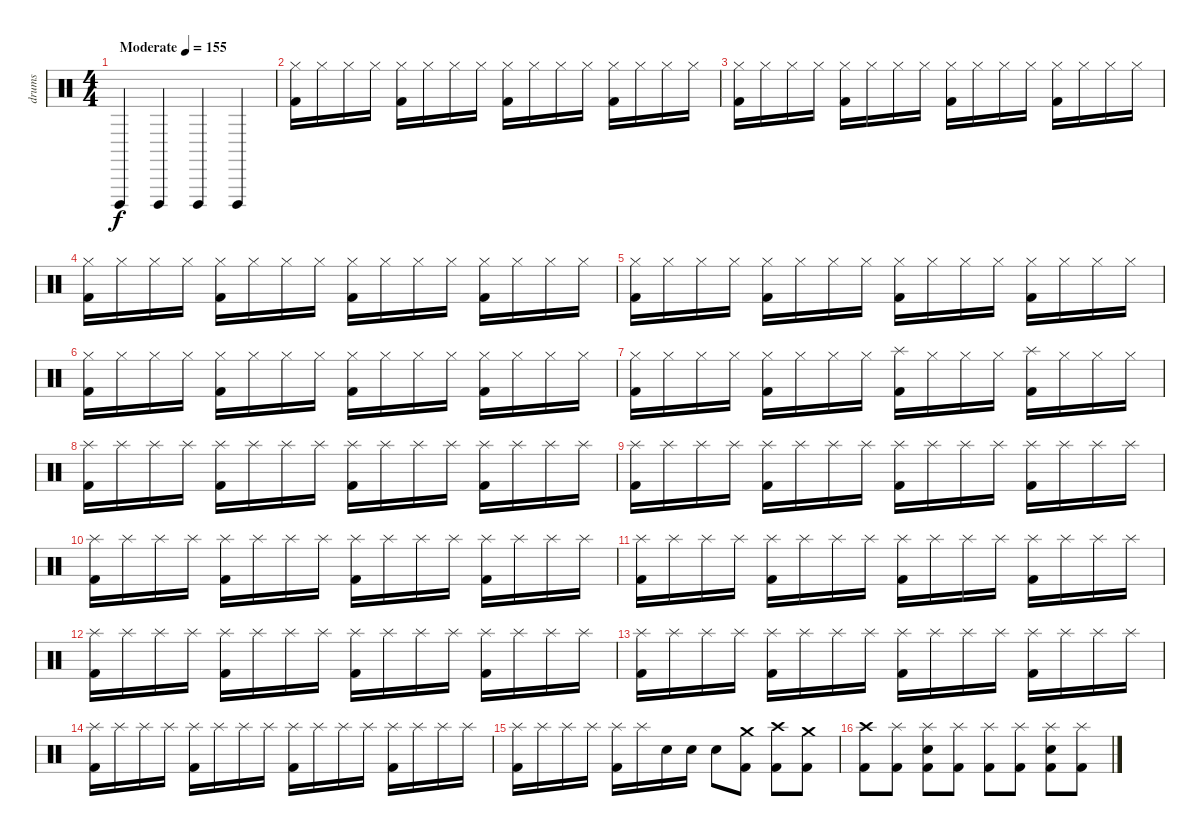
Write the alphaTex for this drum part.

\track ("drums" "drums") {instrument percussion}
\staff {score}
\articulation defaults
\ts (4 4)
\tempo (155 "Moderate")
\clef neutral
\ks c "Cuica (open)".4{dy f} "Cuica (open)".4 "Cuica (open)".4 "Cuica (open)".4
|
("Hi-Hat (closed)" "Kick (hit) 2").16 "Hi-Hat (closed)".16 "Hi-Hat (closed)".16 "Hi-Hat (closed)".16 ("Hi-Hat (closed)" "Kick (hit) 2").16 "Hi-Hat (closed)".16 "Hi-Hat (closed)".16 "Hi-Hat (closed)".16 ("Hi-Hat (closed)" "Kick (hit) 2").16 "Hi-Hat (closed)".16 "Hi-Hat (closed)".16 "Hi-Hat (closed)".16 ("Hi-Hat (closed)" "Kick (hit) 2").16 "Hi-Hat (closed)".16 "Hi-Hat (closed)".16 "Hi-Hat (closed)".16 |
("Hi-Hat (closed)" "Kick (hit) 2").16 "Hi-Hat (closed)".16 "Hi-Hat (closed)".16 "Hi-Hat (closed)".16 ("Hi-Hat (closed)" "Kick (hit) 2").16 "Hi-Hat (closed)".16 "Hi-Hat (closed)".16 "Hi-Hat (closed)".16 ("Hi-Hat (closed)" "Kick (hit) 2").16 "Hi-Hat (closed)".16 "Hi-Hat (closed)".16 "Hi-Hat (closed)".16 ("Hi-Hat (closed)" "Kick (hit) 2").16 "Hi-Hat (closed)".16 "Hi-Hat (closed)".16 "Hi-Hat (closed)".16 |
("Hi-Hat (closed)" "Kick (hit) 2").16 "Hi-Hat (closed)".16 "Hi-Hat (closed)".16 "Hi-Hat (closed)".16 ("Hi-Hat (closed)" "Kick (hit) 2").16 "Hi-Hat (closed)".16 "Hi-Hat (closed)".16 "Hi-Hat (closed)".16 ("Hi-Hat (closed)" "Kick (hit) 2").16 "Hi-Hat (closed)".16 "Hi-Hat (closed)".16 "Hi-Hat (closed)".16 ("Hi-Hat (closed)" "Kick (hit) 2").16 "Hi-Hat (closed)".16 "Hi-Hat (closed)".16 "Hi-Hat (closed)".16 |
("Hi-Hat (closed)" "Kick (hit) 2").16 "Hi-Hat (closed)".16 "Hi-Hat (closed)".16 "Hi-Hat (closed)".16 ("Hi-Hat (closed)" "Kick (hit) 2").16 "Hi-Hat (closed)".16 "Hi-Hat (closed)".16 "Hi-Hat (closed)".16 ("Hi-Hat (closed)" "Kick (hit) 2").16 "Hi-Hat (closed)".16 "Hi-Hat (closed)".16 "Hi-Hat (closed)".16 ("Hi-Hat (closed)" "Kick (hit) 2").16 "Hi-Hat (closed)".16 "Hi-Hat (closed)".16 "Hi-Hat (closed)".16 |
("Hi-Hat (closed)" "Kick (hit) 2").16 "Hi-Hat (closed)".16 "Hi-Hat (closed)".16 "Hi-Hat (closed)".16 ("Hi-Hat (closed)" "Kick (hit) 2").16 "Hi-Hat (closed)".16 "Hi-Hat (closed)".16 "Hi-Hat (closed)".16 ("Hi-Hat (closed)" "Kick (hit) 2").16 "Hi-Hat (closed)".16 "Hi-Hat (closed)".16 "Hi-Hat (closed)".16 ("Hi-Hat (closed)" "Kick (hit) 2").16 "Hi-Hat (closed)".16 "Hi-Hat (closed)".16 "Hi-Hat (closed)".16 |
("Hi-Hat (closed)" "Kick (hit) 2").16 "Hi-Hat (closed)".16 "Hi-Hat (closed)".16 "Hi-Hat (closed)".16 ("Hi-Hat (closed)" "Kick (hit) 2").16 "Hi-Hat (closed)".16 "Hi-Hat (closed)".16 "Hi-Hat (closed)".16 ("Splash (hit)" "Kick (hit) 2").16 "Hi-Hat (closed)".16 "Hi-Hat (closed)".16 "Hi-Hat (closed)".16 ("Splash (hit)" "Kick (hit) 2").16 "Hi-Hat (closed)".16 "Hi-Hat (closed)".16 "Hi-Hat (closed)".16 |
("Splash (hit)" "Kick (hit) 2").16 "Splash (hit)".16 "Splash (hit)".16 "Splash (hit)".16 ("Splash (hit)" "Kick (hit) 2").16 "Splash (hit)".16 "Splash (hit)".16 "Splash (hit)".16 ("Splash (hit)" "Kick (hit) 2").16 "Splash (hit)".16 "Splash (hit)".16 "Splash (hit)".16 ("Splash (hit)" "Kick (hit) 2").16 "Splash (hit)".16 "Splash (hit)".16 "Splash (hit)".16 |
("Splash (hit)" "Kick (hit) 2").16 "Splash (hit)".16 "Splash (hit)".16 "Splash (hit)".16 ("Splash (hit)" "Kick (hit) 2").16 "Splash (hit)".16 "Splash (hit)".16 "Splash (hit)".16 ("Splash (hit)" "Kick (hit) 2").16 "Splash (hit)".16 "Splash (hit)".16 "Splash (hit)".16 ("Splash (hit)" "Kick (hit) 2").16 "Splash (hit)".16 "Splash (hit)".16 "Splash (hit)".16 |
("Splash (hit)" "Kick (hit) 2").16 "Splash (hit)".16 "Splash (hit)".16 "Splash (hit)".16 ("Splash (hit)" "Kick (hit) 2").16 "Splash (hit)".16 "Splash (hit)".16 "Splash (hit)".16 ("Splash (hit)" "Kick (hit) 2").16 "Splash (hit)".16 "Splash (hit)".16 "Splash (hit)".16 ("Splash (hit)" "Kick (hit) 2").16 "Splash (hit)".16 "Splash (hit)".16 "Splash (hit)".16 |
("Splash (hit)" "Kick (hit) 2").16 "Splash (hit)".16 "Splash (hit)".16 "Splash (hit)".16 ("Splash (hit)" "Kick (hit) 2").16 "Splash (hit)".16 "Splash (hit)".16 "Splash (hit)".16 ("Splash (hit)" "Kick (hit) 2").16 "Splash (hit)".16 "Splash (hit)".16 "Splash (hit)".16 ("Splash (hit)" "Kick (hit) 2").16 "Splash (hit)".16 "Splash (hit)".16 "Splash (hit)".16 |
("Splash (hit)" "Kick (hit) 2").16 "Splash (hit)".16 "Splash (hit)".16 "Splash (hit)".16 ("Splash (hit)" "Kick (hit) 2").16 "Splash (hit)".16 "Splash (hit)".16 "Splash (hit)".16 ("Splash (hit)" "Kick (hit) 2").16 "Splash (hit)".16 "Splash (hit)".16 "Splash (hit)".16 ("Splash (hit)" "Kick (hit) 2").16 "Splash (hit)".16 "Splash (hit)".16 "Splash (hit)".16 |
("Splash (hit)" "Kick (hit) 2").16 "Splash (hit)".16 "Splash (hit)".16 "Splash (hit)".16 ("Splash (hit)" "Kick (hit) 2").16 "Splash (hit)".16 "Splash (hit)".16 "Splash (hit)".16 ("Splash (hit)" "Kick (hit) 2").16 "Splash (hit)".16 "Splash (hit)".16 "Splash (hit)".16 ("Splash (hit)" "Kick (hit) 2").16 "Splash (hit)".16 "Splash (hit)".16 "Splash (hit)".16 |
("Splash (hit)" "Kick (hit) 2").16 "Splash (hit)".16 "Splash (hit)".16 "Splash (hit)".16 ("Splash (hit)" "Kick (hit) 2").16 "Splash (hit)".16 "Splash (hit)".16 "Splash (hit)".16 ("Splash (hit)" "Kick (hit) 2").16 "Splash (hit)".16 "Splash (hit)".16 "Splash (hit)".16 ("Splash (hit)" "Kick (hit) 2").16 "Splash (hit)".16 "Splash (hit)".16 "Splash (hit)".16 |
("Splash (hit)" "Kick (hit) 2").16 "Splash (hit)".16 "Splash (hit)".16 "Splash (hit)".16 ("Splash (hit)" "Kick (hit) 2").16 "Splash (hit)".16 "Snare (hit) 2".16 "Snare (hit) 2".16 "Snare (hit) 2".8 ("Crash medium (hit)" "Kick (hit) 2").8 ("Crash high (hit)" "Kick (hit) 2").8 ("Crash medium (hit)" "Kick (hit) 2").8 |
("Crash high (hit)" "Kick (hit) 2").8 ("Splash (hit)" "Kick (hit) 2").8 ("Splash (hit)" "Snare (hit) 2" "Kick (hit) 2").8 ("Splash (hit)" "Kick (hit) 2").8 ("Splash (hit)" "Kick (hit) 2").8 ("Splash (hit)" "Kick (hit) 2").8 ("Splash (hit)" "Snare (hit) 2" "Kick (hit) 2").8 ("Splash (hit)" "Kick (hit) 2").8
